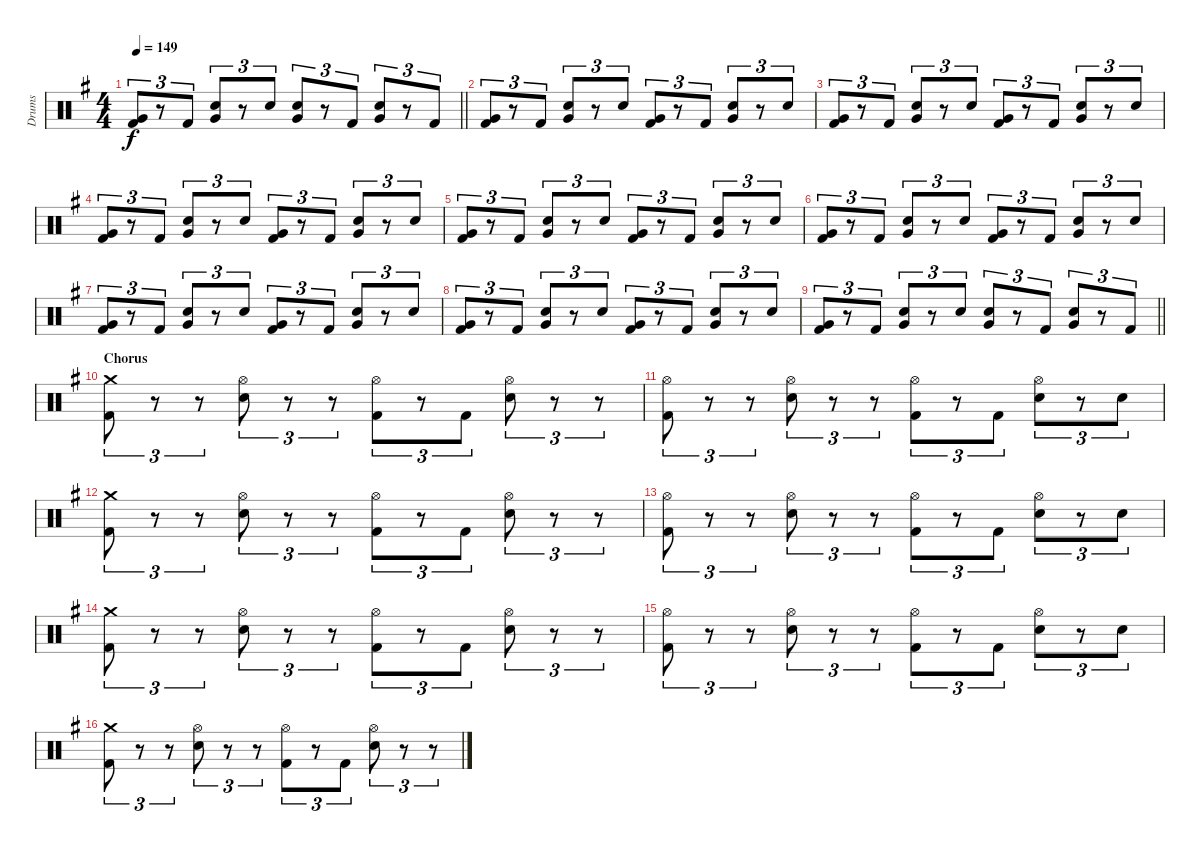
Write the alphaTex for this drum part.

\track ("Drums" "Drums") {instrument percussion}
\staff {score}
\articulation defaults
\ts (4 4)
\tempo 149
\clef neutral
\barLineRight lightlight
\ks g
("Very Low Tom (hit)" "Kick (hit) 2").8{tu (3 2) dy f} r.8{tu (3 2)} "Kick (hit) 2".8{tu (3 2)} ("Electric Snare (hit)" "Very Low Tom (hit)").8{tu (3 2)} r.8{tu (3 2)} "Electric Snare (hit)".8{tu (3 2)} ("Electric Snare (hit)" "Very Low Tom (hit)").8{tu (3 2)} r.8{tu (3 2)} "Kick (hit) 2".8{tu (3 2)} ("Electric Snare (hit)" "Very Low Tom (hit)").8{tu (3 2)} r.8{tu (3 2)} "Kick (hit) 2".8{tu (3 2)} |
("Very Low Tom (hit)" "Kick (hit) 2").8{tu (3 2)} r.8{tu (3 2)} "Kick (hit) 2".8{tu (3 2)} ("Electric Snare (hit)" "Very Low Tom (hit)").8{tu (3 2)} r.8{tu (3 2)} "Electric Snare (hit)".8{tu (3 2)} ("Very Low Tom (hit)" "Kick (hit) 2").8{tu (3 2)} r.8{tu (3 2)} "Kick (hit) 2".8{tu (3 2)} ("Electric Snare (hit)" "Very Low Tom (hit)").8{tu (3 2)} r.8{tu (3 2)} "Electric Snare (hit)".8{tu (3 2)} |
("Very Low Tom (hit)" "Kick (hit) 2").8{tu (3 2)} r.8{tu (3 2)} "Kick (hit) 2".8{tu (3 2)} ("Electric Snare (hit)" "Very Low Tom (hit)").8{tu (3 2)} r.8{tu (3 2)} "Electric Snare (hit)".8{tu (3 2)} ("Very Low Tom (hit)" "Kick (hit) 2").8{tu (3 2)} r.8{tu (3 2)} "Kick (hit) 2".8{tu (3 2)} ("Electric Snare (hit)" "Very Low Tom (hit)").8{tu (3 2)} r.8{tu (3 2)} "Electric Snare (hit)".8{tu (3 2)} |
("Very Low Tom (hit)" "Kick (hit) 2").8{tu (3 2)} r.8{tu (3 2)} "Kick (hit) 2".8{tu (3 2)} ("Electric Snare (hit)" "Very Low Tom (hit)").8{tu (3 2)} r.8{tu (3 2)} "Electric Snare (hit)".8{tu (3 2)} ("Very Low Tom (hit)" "Kick (hit) 2").8{tu (3 2)} r.8{tu (3 2)} "Kick (hit) 2".8{tu (3 2)} ("Electric Snare (hit)" "Very Low Tom (hit)").8{tu (3 2)} r.8{tu (3 2)} "Electric Snare (hit)".8{tu (3 2)} |
("Very Low Tom (hit)" "Kick (hit) 2").8{tu (3 2)} r.8{tu (3 2)} "Kick (hit) 2".8{tu (3 2)} ("Electric Snare (hit)" "Very Low Tom (hit)").8{tu (3 2)} r.8{tu (3 2)} "Electric Snare (hit)".8{tu (3 2)} ("Very Low Tom (hit)" "Kick (hit) 2").8{tu (3 2)} r.8{tu (3 2)} "Kick (hit) 2".8{tu (3 2)} ("Electric Snare (hit)" "Very Low Tom (hit)").8{tu (3 2)} r.8{tu (3 2)} "Electric Snare (hit)".8{tu (3 2)} |
("Very Low Tom (hit)" "Kick (hit) 2").8{tu (3 2)} r.8{tu (3 2)} "Kick (hit) 2".8{tu (3 2)} ("Electric Snare (hit)" "Very Low Tom (hit)").8{tu (3 2)} r.8{tu (3 2)} "Electric Snare (hit)".8{tu (3 2)} ("Very Low Tom (hit)" "Kick (hit) 2").8{tu (3 2)} r.8{tu (3 2)} "Kick (hit) 2".8{tu (3 2)} ("Electric Snare (hit)" "Very Low Tom (hit)").8{tu (3 2)} r.8{tu (3 2)} "Electric Snare (hit)".8{tu (3 2)} |
("Very Low Tom (hit)" "Kick (hit) 2").8{tu (3 2)} r.8{tu (3 2)} "Kick (hit) 2".8{tu (3 2)} ("Electric Snare (hit)" "Very Low Tom (hit)").8{tu (3 2)} r.8{tu (3 2)} "Electric Snare (hit)".8{tu (3 2)} ("Very Low Tom (hit)" "Kick (hit) 2").8{tu (3 2)} r.8{tu (3 2)} "Kick (hit) 2".8{tu (3 2)} ("Electric Snare (hit)" "Very Low Tom (hit)").8{tu (3 2)} r.8{tu (3 2)} "Electric Snare (hit)".8{tu (3 2)} |
("Very Low Tom (hit)" "Kick (hit) 2").8{tu (3 2)} r.8{tu (3 2)} "Kick (hit) 2".8{tu (3 2)} ("Electric Snare (hit)" "Very Low Tom (hit)").8{tu (3 2)} r.8{tu (3 2)} "Electric Snare (hit)".8{tu (3 2)} ("Very Low Tom (hit)" "Kick (hit) 2").8{tu (3 2)} r.8{tu (3 2)} "Kick (hit) 2".8{tu (3 2)} ("Electric Snare (hit)" "Very Low Tom (hit)").8{tu (3 2)} r.8{tu (3 2)} "Electric Snare (hit)".8{tu (3 2)} |
\barLineRight lightlight
("Very Low Tom (hit)" "Kick (hit) 2").8{tu (3 2)} r.8{tu (3 2)} "Kick (hit) 2".8{tu (3 2)} ("Electric Snare (hit)" "Very Low Tom (hit)").8{tu (3 2)} r.8{tu (3 2)} "Electric Snare (hit)".8{tu (3 2)} ("Electric Snare (hit)" "Very Low Tom (hit)").8{tu (3 2)} r.8{tu (3 2)} "Kick (hit) 2".8{tu (3 2)} ("Electric Snare (hit)" "Very Low Tom (hit)").8{tu (3 2)} r.8{tu (3 2)} "Kick (hit) 2".8{tu (3 2)} |
\section ("" "Chorus")
("Crash medium (hit)" "Kick (hit) 2").8{tu (3 2)} r.8{tu (3 2)} r.8{tu (3 2)} ("Hi-Hat (open)" "Electric Snare (hit)").8{tu (3 2)} r.8{tu (3 2)} r.8{tu (3 2)} ("Hi-Hat (open)" "Kick (hit) 2").8{tu (3 2)} r.8{tu (3 2)} "Kick (hit) 2".8{tu (3 2)} ("Hi-Hat (open)" "Electric Snare (hit)").8{tu (3 2)} r.8{tu (3 2)} r.8{tu (3 2)} |
("Hi-Hat (open)" "Kick (hit) 2").8{tu (3 2)} r.8{tu (3 2)} r.8{tu (3 2)} ("Hi-Hat (open)" "Electric Snare (hit)").8{tu (3 2)} r.8{tu (3 2)} r.8{tu (3 2)} ("Hi-Hat (open)" "Kick (hit) 2").8{tu (3 2)} r.8{tu (3 2)} "Kick (hit) 2".8{tu (3 2)} ("Hi-Hat (open)" "Electric Snare (hit)").8{tu (3 2)} r.8{tu (3 2)} "Electric Snare (hit)".8{tu (3 2)} |
("Crash medium (hit)" "Kick (hit) 2").8{tu (3 2)} r.8{tu (3 2)} r.8{tu (3 2)} ("Hi-Hat (open)" "Electric Snare (hit)").8{tu (3 2)} r.8{tu (3 2)} r.8{tu (3 2)} ("Hi-Hat (open)" "Kick (hit) 2").8{tu (3 2)} r.8{tu (3 2)} "Kick (hit) 2".8{tu (3 2)} ("Hi-Hat (open)" "Electric Snare (hit)").8{tu (3 2)} r.8{tu (3 2)} r.8{tu (3 2)} |
("Hi-Hat (open)" "Kick (hit) 2").8{tu (3 2)} r.8{tu (3 2)} r.8{tu (3 2)} ("Hi-Hat (open)" "Electric Snare (hit)").8{tu (3 2)} r.8{tu (3 2)} r.8{tu (3 2)} ("Hi-Hat (open)" "Kick (hit) 2").8{tu (3 2)} r.8{tu (3 2)} "Kick (hit) 2".8{tu (3 2)} ("Hi-Hat (open)" "Electric Snare (hit)").8{tu (3 2)} r.8{tu (3 2)} "Electric Snare (hit)".8{tu (3 2)} |
("Crash medium (hit)" "Kick (hit) 2").8{tu (3 2)} r.8{tu (3 2)} r.8{tu (3 2)} ("Hi-Hat (open)" "Electric Snare (hit)").8{tu (3 2)} r.8{tu (3 2)} r.8{tu (3 2)} ("Hi-Hat (open)" "Kick (hit) 2").8{tu (3 2)} r.8{tu (3 2)} "Kick (hit) 2".8{tu (3 2)} ("Hi-Hat (open)" "Electric Snare (hit)").8{tu (3 2)} r.8{tu (3 2)} r.8{tu (3 2)} |
("Hi-Hat (open)" "Kick (hit) 2").8{tu (3 2)} r.8{tu (3 2)} r.8{tu (3 2)} ("Hi-Hat (open)" "Electric Snare (hit)").8{tu (3 2)} r.8{tu (3 2)} r.8{tu (3 2)} ("Hi-Hat (open)" "Kick (hit) 2").8{tu (3 2)} r.8{tu (3 2)} "Kick (hit) 2".8{tu (3 2)} ("Hi-Hat (open)" "Electric Snare (hit)").8{tu (3 2)} r.8{tu (3 2)} "Electric Snare (hit)".8{tu (3 2)} |
("Crash medium (hit)" "Kick (hit) 2").8{tu (3 2)} r.8{tu (3 2)} r.8{tu (3 2)} ("Hi-Hat (open)" "Electric Snare (hit)").8{tu (3 2)} r.8{tu (3 2)} r.8{tu (3 2)} ("Hi-Hat (open)" "Kick (hit) 2").8{tu (3 2)} r.8{tu (3 2)} "Kick (hit) 2".8{tu (3 2)} ("Hi-Hat (open)" "Electric Snare (hit)").8{tu (3 2)} r.8{tu (3 2)} r.8{tu (3 2)}
